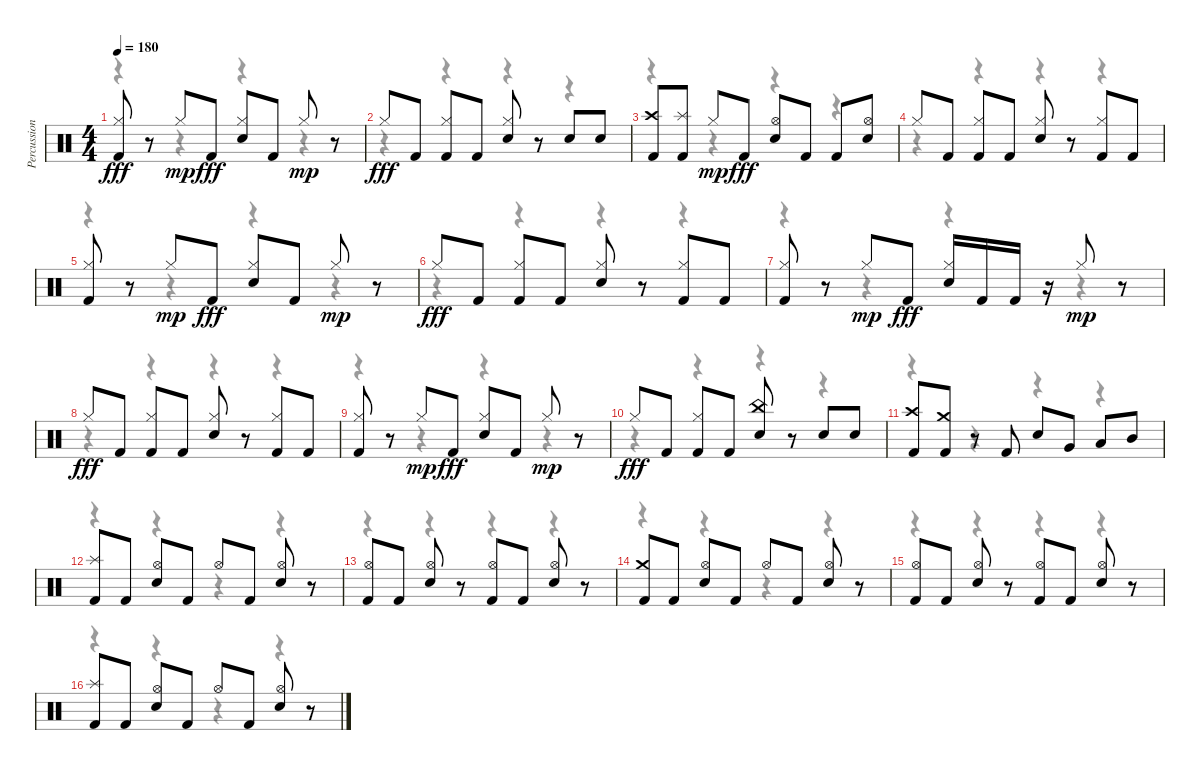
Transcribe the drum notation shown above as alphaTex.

\track ("Percussion" "Percussion") {instrument percussion}
\staff {score}
\articulation defaults
\voice
\ts (4 4)
\tempo 180
\clef neutral
\ks c
("Kick (hit) 2" "Hi-Hat (closed)").8{dy fff} r.8 "Hi-Hat (closed)".8{dy mp} "Kick (hit) 2".8{dy fff} ("Snare (hit) 2" "Hi-Hat (closed)").8 "Kick (hit) 2".8 "Hi-Hat (closed)".8{dy mp} r.8 |
"Hi-Hat (closed)".8{dy fff} "Kick (hit) 2".8 ("Kick (hit) 2" "Hi-Hat (closed)").8 "Kick (hit) 2".8 ("Snare (hit) 2" "Hi-Hat (closed)").8 r.8 "Snare (hit) 2".8 "Snare (hit) 2".8 |
("Kick (hit) 2" "Crash high (hit)").8 ("Kick (hit) 2" "Splash (hit)").8 "Hi-Hat (closed)".8{dy mp} "Kick (hit) 2".8{dy fff} ("Snare (hit) 2" "Hi-Hat (open)").8 "Kick (hit) 2".8 "Kick (hit) 2".8 ("Hi-Hat (open)" "Snare (hit) 2").8 |
"Hi-Hat (closed)".8 "Kick (hit) 2".8 ("Kick (hit) 2" "Hi-Hat (closed)").8 "Kick (hit) 2".8 ("Snare (hit) 2" "Hi-Hat (closed)").8 r.8 ("Kick (hit) 2" "Hi-Hat (closed)").8 "Kick (hit) 2".8 |
("Kick (hit) 2" "Hi-Hat (closed)").8 r.8 "Hi-Hat (closed)".8{dy mp} "Kick (hit) 2".8{dy fff} ("Snare (hit) 2" "Hi-Hat (closed)").8 "Kick (hit) 2".8 "Hi-Hat (closed)".8{dy mp} r.8 |
"Hi-Hat (closed)".8{dy fff} "Kick (hit) 2".8 ("Kick (hit) 2" "Hi-Hat (closed)").8 "Kick (hit) 2".8 ("Snare (hit) 2" "Hi-Hat (closed)").8 r.8 ("Kick (hit) 2" "Hi-Hat (closed)").8 "Kick (hit) 2".8 |
("Kick (hit) 2" "Hi-Hat (closed)").8 r.8 "Hi-Hat (closed)".8{dy mp} "Kick (hit) 2".8{dy fff} ("Snare (hit) 2" "Hi-Hat (closed)").16 "Kick (hit) 2".16 "Kick (hit) 2".16 r.16 "Hi-Hat (closed)".8{dy mp} r.8 |
"Hi-Hat (closed)".8{dy fff} "Kick (hit) 2".8 ("Kick (hit) 2" "Hi-Hat (closed)").8 "Kick (hit) 2".8 ("Snare (hit) 2" "Hi-Hat (closed)").8 r.8 ("Kick (hit) 2" "Hi-Hat (closed)").8 "Kick (hit) 2".8 |
("Kick (hit) 2" "Hi-Hat (closed)").8 r.8 "Hi-Hat (closed)".8{dy mp} "Kick (hit) 2".8{dy fff} ("Snare (hit) 2" "Hi-Hat (closed)").8 "Kick (hit) 2".8 "Hi-Hat (closed)".8{dy mp} r.8 |
"Hi-Hat (closed)".8{dy fff} "Kick (hit) 2".8 ("Kick (hit) 2" "Hi-Hat (closed)").8 "Kick (hit) 2".8 ("Snare (hit) 2" "China (hit)").8 r.8 "Snare (hit) 2".8 "Snare (hit) 2".8 |
("Kick (hit) 2" "Crash high (hit)").8 ("Kick (hit) 2" "Crash medium (hit)").8 r.8 "Kick (hit) 2".8 "Snare (hit) 2".8 "Very Low Tom (hit)".8 "Low Tom (hit)".8 "Mid Tom (hit)".8 |
("Kick (hit) 2" "Splash (hit)").8 "Kick (hit) 2".8 ("Hi-Hat (open)" "Snare (hit) 2").8 "Kick (hit) 2".8 "Hi-Hat (open)".8 "Kick (hit) 2".8 ("Hi-Hat (open)" "Snare (hit) 2").8 r.8 |
("Hi-Hat (open)" "Kick (hit) 2").8 "Kick (hit) 2".8 ("Hi-Hat (open)" "Snare (hit) 2").8 r.8 ("Hi-Hat (open)" "Kick (hit) 2").8 "Kick (hit) 2".8 ("Hi-Hat (open)" "Snare (hit) 2").8 r.8 |
("Kick (hit) 2" "Crash medium (hit)").8 "Kick (hit) 2".8 ("Hi-Hat (open)" "Snare (hit) 2").8 "Kick (hit) 2".8 "Hi-Hat (open)".8 "Kick (hit) 2".8 ("Hi-Hat (open)" "Snare (hit) 2").8 r.8 |
("Hi-Hat (open)" "Kick (hit) 2").8 "Kick (hit) 2".8 ("Hi-Hat (open)" "Snare (hit) 2").8 r.8 ("Hi-Hat (open)" "Kick (hit) 2").8 "Kick (hit) 2".8 ("Hi-Hat (open)" "Snare (hit) 2").8 r.8 |
("Kick (hit) 2" "Splash (hit)").8 "Kick (hit) 2".8 ("Hi-Hat (open)" "Snare (hit) 2").8 "Kick (hit) 2".8 "Hi-Hat (open)".8 "Kick (hit) 2".8 ("Hi-Hat (open)" "Snare (hit) 2").8 r.8
\voice
\clef neutral
\ottava regular
\simile none
\ks c
r.4{dy f} r.4 r.4 r.4 |
r.4 r.4 r.4 r.4 |
r.4 r.4 r.4 r.4 |
r.4 r.4 r.4 r.4 |
r.4 r.4 r.4 r.4 |
r.4 r.4 r.4 r.4 |
r.4 r.4 r.4 r.4 |
r.4 r.4 r.4 r.4 |
r.4 r.4 r.4 r.4 |
r.4 r.4 r.4 r.4 |
r.4 r.4 r.4 r.4 |
r.4 r.4 r.4 r.4 |
r.4 r.4 r.4 r.4 |
r.4 r.4 r.4 r.4 |
r.4 r.4 r.4 r.4 |
r.4 r.4 r.4 r.4
